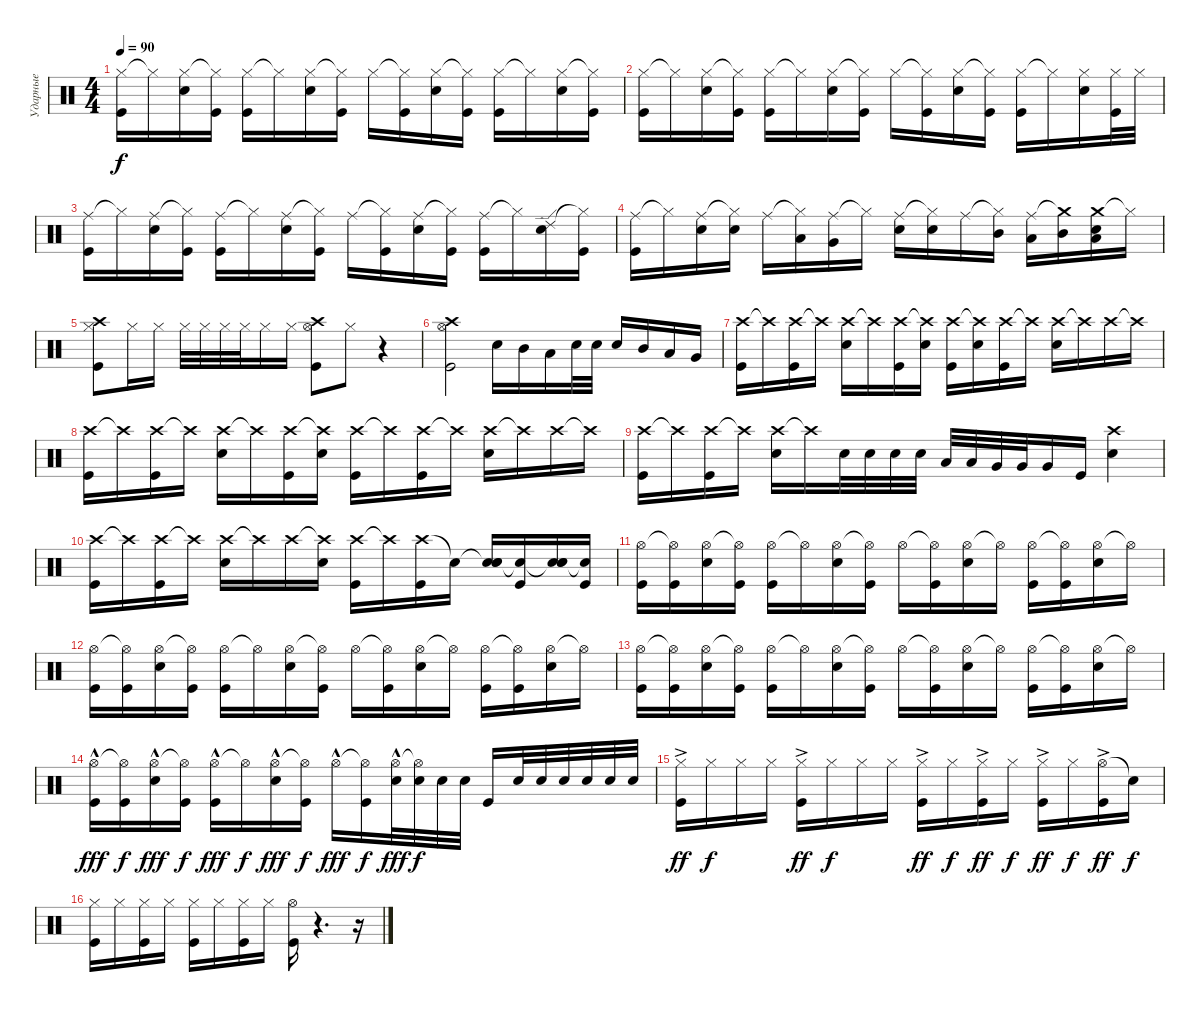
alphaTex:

\track ("Ударные" "Ударные") {instrument percussion}
\staff {score}
\articulation defaults
\ts (4 4)
\tempo 90
\clef neutral
\ks c
("Hi-Hat (closed)" "Kick (hit)").16{dy f} "Hi-Hat (closed)"{t}.16 ("Hi-Hat (closed)" "Electric Snare (hit)").16 ("Hi-Hat (closed)"{t} "Kick (hit)").16 ("Hi-Hat (closed)" "Kick (hit)").16 "Hi-Hat (closed)"{t}.16 ("Hi-Hat (closed)" "Electric Snare (hit)").16 ("Hi-Hat (closed)"{t} "Kick (hit)").16 "Hi-Hat (closed)".16 ("Hi-Hat (closed)"{t} "Kick (hit)").16 ("Hi-Hat (closed)" "Electric Snare (hit)").16 ("Hi-Hat (closed)"{t} "Kick (hit)").16 ("Hi-Hat (closed)" "Kick (hit)").16 "Hi-Hat (closed)"{t}.16 ("Hi-Hat (closed)" "Electric Snare (hit)").16 ("Hi-Hat (closed)"{t} "Kick (hit)").16 |
("Hi-Hat (closed)" "Kick (hit)").16 "Hi-Hat (closed)"{t}.16 ("Hi-Hat (closed)" "Electric Snare (hit)").16 ("Hi-Hat (closed)"{t} "Kick (hit)").16 ("Hi-Hat (closed)" "Kick (hit)").16 "Hi-Hat (closed)"{t}.16 ("Hi-Hat (closed)" "Electric Snare (hit)").16 ("Hi-Hat (closed)"{t} "Kick (hit)").16 "Hi-Hat (closed)".16 ("Hi-Hat (closed)"{t} "Kick (hit)").16 ("Hi-Hat (closed)" "Electric Snare (hit)").16 ("Hi-Hat (closed)"{t} "Kick (hit)").16 ("Hi-Hat (closed)" "Kick (hit)").16 "Hi-Hat (closed)"{t}.16 ("Hi-Hat (closed)" "Electric Snare (hit)").16 ("Hi-Hat (closed)" "Kick (hit)").32 "Hi-Hat (closed)".32 |
("Ride (middle)" "Kick (hit)").16 "Hi-Hat (closed)"{t}.16 ("Ride (middle)" "Electric Snare (hit)").16 ("Hi-Hat (closed)"{t} "Kick (hit)").16 ("Ride (middle)" "Kick (hit)").16 "Hi-Hat (closed)"{t}.16 ("Ride (middle)" "Electric Snare (hit)").16 ("Hi-Hat (closed)"{t} "Kick (hit)").16 "Ride (middle)".16 ("Hi-Hat (closed)"{t} "Kick (hit)").16 ("Ride (middle)" "Electric Snare (hit)").16 ("Hi-Hat (closed)"{t} "Kick (hit)").16 ("Ride (middle)" "Kick (hit)").16 "Hi-Hat (closed)"{t}.16 ("Ride (edge) 2" "Electric Snare (hit)").16 ("Hi-Hat (closed)"{t} "Kick (hit)").16 |
("Ride (middle)" "Kick (hit)").16 "Hi-Hat (closed)"{t}.16 ("Ride (middle)" "Electric Snare (hit)").16 ("Hi-Hat (closed)"{t} "Electric Snare (hit)").16 "Ride (middle)".16 ("Hi-Hat (closed)"{t} "Low Tom (hit)").16 ("Ride (middle)" "Very Low Tom (hit)").16 "Hi-Hat (closed)"{t}.16 ("Ride (middle)" "Electric Snare (hit)").16 ("Hi-Hat (closed)"{t} "Electric Snare (hit)").16 "Ride (middle)".16 ("Hi-Hat (closed)"{t} "Mid Tom (hit)").16 ("Ride (middle)" "Low Tom (hit)").16 ("Crash medium (hit)"{t} "Mid Tom (hit)").16 ("Crash medium (hit)" "Low Tom (hit)" "Electric Snare (hit)").16 "Hi-Hat (closed)"{t}.16 |
("Crash high (hit)" "Hi-Hat (closed)" "Kick (hit)").8 "Hi-Hat (closed)".16 "Hi-Hat (closed)".16 "Hi-Hat (closed)".32 "Hi-Hat (closed)".32 "Hi-Hat (closed)".32 "Hi-Hat (closed)".32 "Hi-Hat (closed)".16 "Hi-Hat (closed)".16 ("Crash high (hit)" "Hi-Hat (open)" "Kick (hit)").8 "Hi-Hat (closed)".8 r.4 |
("Crash high (hit)" "Hi-Hat (open)" "Kick (hit)").2 "Electric Snare (hit)".16 "Mid Tom (hit)".16 "Low Tom (hit)".16 "Electric Snare (hit)".32 "Electric Snare (hit)".32 "Electric Snare (hit)".16 "Mid Tom (hit)".16 "Low Tom (hit)".16 "Very Low Tom (hit)".16 |
("Crash high (hit)" "Kick (hit)").16 "Crash high (hit)"{t}.16 ("Crash high (hit)" "Kick (hit)").16 "Crash high (hit)"{t}.16 ("Crash high (hit)" "Electric Snare (hit)").16 "Crash high (hit)"{t}.16 ("Crash high (hit)" "Kick (hit)").16 ("Crash high (hit)"{t} "Electric Snare (hit)").16 ("Crash high (hit)" "Kick (hit)").16 ("Crash high (hit)"{t} "Electric Snare (hit)").16 ("Crash high (hit)" "Kick (hit)").16 "Crash high (hit)"{t}.16 ("Crash high (hit)" "Electric Snare (hit)").16 "Crash high (hit)"{t}.16 "Crash high (hit)".16 "Crash high (hit)"{t}.16 |
("Crash high (hit)" "Kick (hit)").16 "Crash high (hit)"{t}.16 ("Crash high (hit)" "Kick (hit)").16 "Crash high (hit)"{t}.16 ("Crash high (hit)" "Electric Snare (hit)").16 "Crash high (hit)"{t}.16 ("Crash high (hit)" "Kick (hit)").16 ("Crash high (hit)"{t} "Electric Snare (hit)").16 ("Crash high (hit)" "Kick (hit)").16 "Crash high (hit)"{t}.16 ("Crash high (hit)" "Kick (hit)").16 "Crash high (hit)"{t}.16 ("Crash high (hit)" "Electric Snare (hit)").16 "Crash high (hit)"{t}.16 "Crash high (hit)".16 "Crash high (hit)"{t}.16 |
("Crash high (hit)" "Kick (hit)").16 "Crash high (hit)"{t}.16 ("Crash high (hit)" "Kick (hit)").16 "Crash high (hit)"{t}.16 ("Crash high (hit)" "Electric Snare (hit)").16 "Crash high (hit)"{t}.16 "Electric Snare (hit)".32 "Electric Snare (hit)".32 "Electric Snare (hit)".32 "Electric Snare (hit)".32 "Low Tom (hit)".32 "Low Tom (hit)".32 "Very Low Tom (hit)".32 "Very Low Tom (hit)".32 "Very Low Tom (hit)".16 "Kick (hit)".16 ("Crash high (hit)" "Electric Snare (hit)").4 |
("Crash high (hit)" "Kick (hit)").16 "Crash high (hit)"{t}.16 ("Crash high (hit)" "Kick (hit)").16 "Crash high (hit)"{t}.16 ("Crash high (hit)" "Electric Snare (hit)").16 "Crash high (hit)"{t}.16 "Crash high (hit)".16 ("Crash high (hit)"{t} "Electric Snare (hit)").16 ("Crash high (hit)" "Kick (hit)").16 "Crash high (hit)"{t}.16 ("Crash high (hit)" "Kick (hit)").16 "Snare (hit)"{t}.16 ("Snare (hit)"{t} "Electric Snare (hit)" "Electric Snare (hit)").16 ("Snare (hit)"{t} "Kick (hit)").16 ("Snare (hit)"{t} "Electric Snare (hit)" "Electric Snare (hit)").16 ("Snare (hit)"{t} "Kick (hit)").16 |
("Hi-Hat (open)" "Kick (hit)").16 ("Hi-Hat (open)"{t} "Kick (hit)").16 ("Hi-Hat (open)" "Electric Snare (hit)").16 ("Hi-Hat (open)"{t} "Kick (hit)").16 ("Hi-Hat (open)" "Kick (hit)").16 "Hi-Hat (open)"{t}.16 ("Hi-Hat (open)" "Electric Snare (hit)").16 ("Hi-Hat (open)"{t} "Kick (hit)").16 "Hi-Hat (open)".16 ("Hi-Hat (open)"{t} "Kick (hit)").16 ("Hi-Hat (open)" "Electric Snare (hit)").16 "Hi-Hat (open)"{t}.16 ("Hi-Hat (open)" "Kick (hit)").16 ("Hi-Hat (open)"{t} "Kick (hit)").16 ("Hi-Hat (open)" "Electric Snare (hit)").16 "Hi-Hat (open)"{t}.16 |
("Hi-Hat (open)" "Kick (hit)").16 ("Hi-Hat (open)"{t} "Kick (hit)").16 ("Hi-Hat (open)" "Electric Snare (hit)").16 ("Hi-Hat (open)"{t} "Kick (hit)").16 ("Hi-Hat (open)" "Kick (hit)").16 "Hi-Hat (open)"{t}.16 ("Hi-Hat (open)" "Electric Snare (hit)").16 ("Hi-Hat (open)"{t} "Kick (hit)").16 "Hi-Hat (open)".16 ("Hi-Hat (open)"{t} "Kick (hit)").16 ("Hi-Hat (open)" "Electric Snare (hit)").16 "Hi-Hat (open)"{t}.16 ("Hi-Hat (open)" "Kick (hit)").16 ("Hi-Hat (open)"{t} "Kick (hit)").16 ("Hi-Hat (open)" "Electric Snare (hit)").16 "Hi-Hat (open)"{t}.16 |
("Hi-Hat (open)" "Kick (hit)").16 ("Hi-Hat (open)"{t} "Kick (hit)").16 ("Hi-Hat (open)" "Electric Snare (hit)").16 ("Hi-Hat (open)"{t} "Kick (hit)").16 ("Hi-Hat (open)" "Kick (hit)").16 "Hi-Hat (open)"{t}.16 ("Hi-Hat (open)" "Electric Snare (hit)").16 ("Hi-Hat (open)"{t} "Kick (hit)").16 "Hi-Hat (open)".16 ("Hi-Hat (open)"{t} "Kick (hit)").16 ("Hi-Hat (open)" "Electric Snare (hit)").16 "Hi-Hat (open)"{t}.16 ("Hi-Hat (open)" "Kick (hit)").16 ("Hi-Hat (open)"{t} "Kick (hit)").16 ("Hi-Hat (open)" "Electric Snare (hit)").16 "Hi-Hat (open)"{t}.16 |
("Hi-Hat (open)"{hac} "Kick (hit)").16{dy fff} ("Hi-Hat (open)"{t} "Kick (hit)").16{dy f} ("Hi-Hat (open)"{hac} "Electric Snare (hit)").16{dy fff} ("Hi-Hat (open)"{t} "Kick (hit)").16{dy f} ("Hi-Hat (open)"{hac} "Kick (hit)").16{dy fff} "Hi-Hat (open)"{t}.16{dy f} ("Hi-Hat (open)"{hac} "Electric Snare (hit)").16{dy fff} ("Hi-Hat (open)"{t} "Kick (hit)").16{dy f} "Hi-Hat (open)"{hac}.16{dy fff} ("Hi-Hat (open)"{t} "Kick (hit)").16{dy f} ("Hi-Hat (open)"{hac} "Electric Snare (hit)").32{dy fff} ("Hi-Hat (open)"{t} "Electric Snare (hit)").32{dy f} "Electric Snare (hit)".32 "Electric Snare (hit)".32 "Kick (hit)".16 "Electric Snare (hit)".32 "Electric Snare (hit)".32 "Electric Snare (hit)".32 "Electric Snare (hit)".32 "Electric Snare (hit)".32 "Electric Snare (hit)".32 |
("Hi-Hat (closed)"{ac} "Kick (hit)").16{dy ff} "Hi-Hat (closed)".16{dy f} "Hi-Hat (closed)".16 "Hi-Hat (closed)".16 ("Hi-Hat (closed)"{ac} "Kick (hit)").16{dy ff} "Hi-Hat (closed)".16{dy f} "Hi-Hat (closed)".16 "Hi-Hat (closed)".16 ("Hi-Hat (closed)"{ac} "Kick (hit)").16{dy ff} "Hi-Hat (closed)".16{dy f} ("Hi-Hat (closed)"{ac} "Kick (hit)").16{dy ff} "Hi-Hat (closed)".16{dy f} ("Hi-Hat (closed)"{ac} "Kick (hit)").16{dy ff} "Hi-Hat (closed)".16{dy f} ("Hi-Hat (open)"{ac} "Kick (hit)").16{dy ff} "Snare (hit)"{t}.16{dy f} |
("Hi-Hat (closed)" "Kick (hit)").16 "Hi-Hat (closed)".16 ("Hi-Hat (closed)" "Kick (hit)").16 "Hi-Hat (closed)".16 ("Hi-Hat (closed)" "Kick (hit)").16 "Hi-Hat (closed)".16 ("Hi-Hat (closed)" "Kick (hit)").16 "Hi-Hat (closed)".16 ("Hi-Hat (open)" "Kick (hit)").16 r.4{d} r.16
